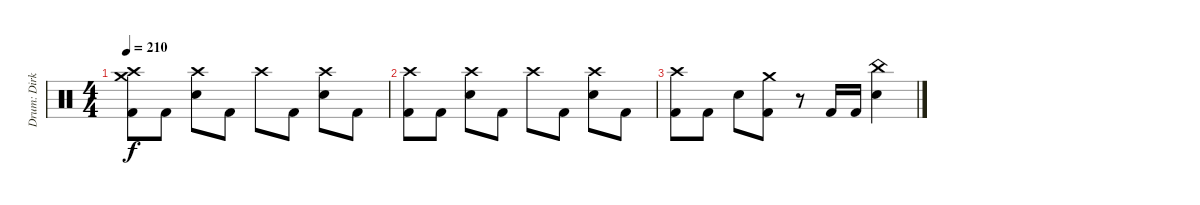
\track ("Drum: Dirk" "Drum: Dirk") {instrument percussion}
\staff {score}
\articulation defaults
\ts (4 4)
\tempo 210
\clef neutral
\ks c
("Crash high (hit)" "Crash medium (hit)" "Kick (hit) 2").8{dy f} "Kick (hit) 2".8 ("Crash high (hit)" "Electric Snare (hit)").8 "Kick (hit) 2".8 "Crash high (hit)".8 "Kick (hit) 2".8 ("Crash high (hit)" "Electric Snare (hit)").8 "Kick (hit) 2".8 |
("Crash high (hit)" "Kick (hit) 2").8 "Kick (hit) 2".8 ("Crash high (hit)" "Electric Snare (hit)").8 "Kick (hit) 2".8 "Crash high (hit)".8 "Kick (hit) 2".8 ("Crash high (hit)" "Electric Snare (hit)").8 "Kick (hit) 2".8 |
("Crash high (hit)" "Kick (hit) 2").8 "Kick (hit) 2".8 "Electric Snare (hit)".8 ("Crash medium (hit)" "Kick (hit) 2").8 r.8 "Kick (hit) 2".16 "Kick (hit) 2".16 ("China (hit)" "Electric Snare (hit)").4
